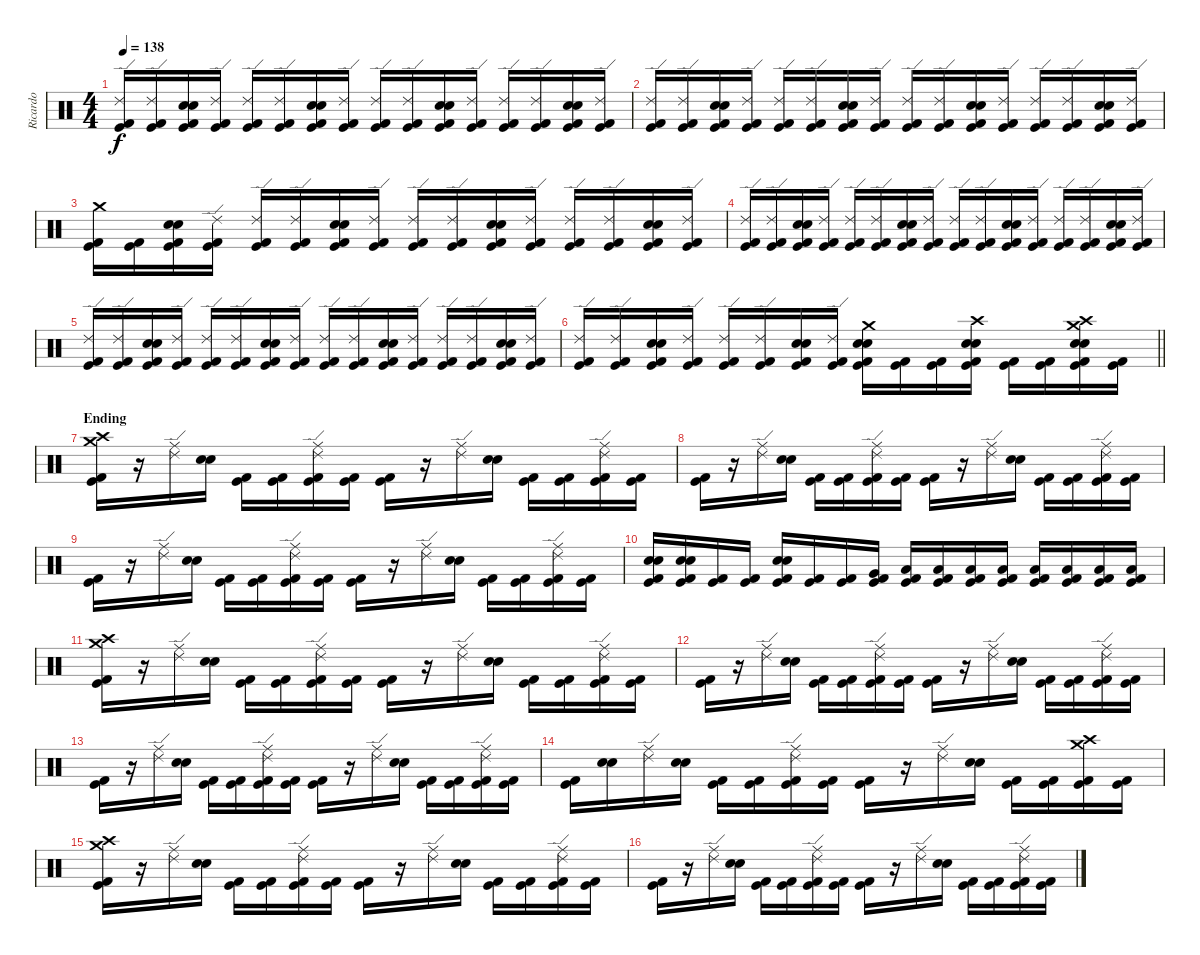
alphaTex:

\track ("Ricardo" "Ricardo") {instrument percussion}
\staff {score}
\articulation defaults
\ts (4 4)
\tempo 138
\clef neutral
\ks c
("Ride (edge) 2" "Kick (hit) 2" "Kick (hit)").16{dy f} ("Ride (edge) 2" "Kick (hit) 2" "Kick (hit)").16 ("Electric Snare (hit)" "Snare (hit) 2" "Kick (hit) 2" "Kick (hit)").16 ("Ride (edge) 2" "Kick (hit) 2" "Kick (hit)").16 ("Ride (edge) 2" "Kick (hit) 2" "Kick (hit)").16 ("Ride (edge) 2" "Kick (hit) 2" "Kick (hit)").16 ("Electric Snare (hit)" "Snare (hit) 2" "Kick (hit) 2" "Kick (hit)").16 ("Ride (edge) 2" "Kick (hit) 2" "Kick (hit)").16 ("Ride (edge) 2" "Kick (hit) 2" "Kick (hit)").16 ("Ride (edge) 2" "Kick (hit) 2" "Kick (hit)").16 ("Electric Snare (hit)" "Snare (hit) 2" "Kick (hit) 2" "Kick (hit)").16 ("Ride (edge) 2" "Kick (hit) 2" "Kick (hit)").16 ("Ride (edge) 2" "Kick (hit) 2" "Kick (hit)").16 ("Ride (edge) 2" "Kick (hit) 2" "Kick (hit)").16 ("Electric Snare (hit)" "Snare (hit) 2" "Kick (hit) 2" "Kick (hit)").16 ("Ride (edge) 2" "Kick (hit) 2" "Kick (hit)").16 |
("Ride (edge) 2" "Kick (hit) 2" "Kick (hit)").16 ("Ride (edge) 2" "Kick (hit) 2" "Kick (hit)").16 ("Electric Snare (hit)" "Snare (hit) 2" "Kick (hit) 2" "Kick (hit)").16 ("Ride (edge) 2" "Kick (hit) 2" "Kick (hit)").16 ("Ride (edge) 2" "Kick (hit) 2" "Kick (hit)").16 ("Ride (edge) 2" "Kick (hit) 2" "Kick (hit)").16 ("Electric Snare (hit)" "Snare (hit) 2" "Kick (hit) 2" "Kick (hit)").16 ("Ride (edge) 2" "Kick (hit) 2" "Kick (hit)").16 ("Ride (edge) 2" "Kick (hit) 2" "Kick (hit)").16 ("Ride (edge) 2" "Kick (hit) 2" "Kick (hit)").16 ("Electric Snare (hit)" "Snare (hit) 2" "Kick (hit) 2" "Kick (hit)").16 ("Ride (edge) 2" "Kick (hit) 2" "Kick (hit)").16 ("Ride (edge) 2" "Kick (hit) 2" "Kick (hit)").16 ("Ride (edge) 2" "Kick (hit) 2" "Kick (hit)").16 ("Electric Snare (hit)" "Snare (hit) 2" "Kick (hit) 2" "Kick (hit)").16 ("Ride (edge) 2" "Kick (hit) 2" "Kick (hit)").16 |
("Crash medium (hit)" "Kick (hit) 2" "Kick (hit)").16 ("Kick (hit) 2" "Kick (hit)").16 ("Electric Snare (hit)" "Snare (hit) 2" "Kick (hit) 2" "Kick (hit)").16 ("Ride (edge) 2" "Kick (hit) 2" "Kick (hit)").16 ("Ride (edge) 2" "Kick (hit) 2" "Kick (hit)").16 ("Ride (edge) 2" "Kick (hit) 2" "Kick (hit)").16 ("Electric Snare (hit)" "Snare (hit) 2" "Kick (hit) 2" "Kick (hit)").16 ("Ride (edge) 2" "Kick (hit) 2" "Kick (hit)").16 ("Ride (edge) 2" "Kick (hit) 2" "Kick (hit)").16 ("Ride (edge) 2" "Kick (hit) 2" "Kick (hit)").16 ("Electric Snare (hit)" "Snare (hit) 2" "Kick (hit) 2" "Kick (hit)").16 ("Ride (edge) 2" "Kick (hit) 2" "Kick (hit)").16 ("Ride (edge) 2" "Kick (hit) 2" "Kick (hit)").16 ("Ride (edge) 2" "Kick (hit) 2" "Kick (hit)").16 ("Electric Snare (hit)" "Snare (hit) 2" "Kick (hit) 2" "Kick (hit)").16 ("Ride (edge) 2" "Kick (hit) 2" "Kick (hit)").16 |
("Ride (edge) 2" "Kick (hit) 2" "Kick (hit)").16 ("Ride (edge) 2" "Kick (hit) 2" "Kick (hit)").16 ("Electric Snare (hit)" "Snare (hit) 2" "Kick (hit) 2" "Kick (hit)").16 ("Ride (edge) 2" "Kick (hit) 2" "Kick (hit)").16 ("Ride (edge) 2" "Kick (hit) 2" "Kick (hit)").16 ("Ride (edge) 2" "Kick (hit) 2" "Kick (hit)").16 ("Electric Snare (hit)" "Snare (hit) 2" "Kick (hit) 2" "Kick (hit)").16 ("Ride (edge) 2" "Kick (hit) 2" "Kick (hit)").16 ("Ride (edge) 2" "Kick (hit) 2" "Kick (hit)").16 ("Ride (edge) 2" "Kick (hit) 2" "Kick (hit)").16 ("Electric Snare (hit)" "Snare (hit) 2" "Kick (hit) 2" "Kick (hit)").16 ("Ride (edge) 2" "Kick (hit) 2" "Kick (hit)").16 ("Ride (edge) 2" "Kick (hit) 2" "Kick (hit)").16 ("Ride (edge) 2" "Kick (hit) 2" "Kick (hit)").16 ("Electric Snare (hit)" "Snare (hit) 2" "Kick (hit) 2" "Kick (hit)").16 ("Ride (edge) 2" "Kick (hit) 2" "Kick (hit)").16 |
("Ride (edge) 2" "Kick (hit) 2" "Kick (hit)").16 ("Ride (edge) 2" "Kick (hit) 2" "Kick (hit)").16 ("Electric Snare (hit)" "Snare (hit) 2" "Kick (hit) 2" "Kick (hit)").16 ("Ride (edge) 2" "Kick (hit) 2" "Kick (hit)").16 ("Ride (edge) 2" "Kick (hit) 2" "Kick (hit)").16 ("Ride (edge) 2" "Kick (hit) 2" "Kick (hit)").16 ("Electric Snare (hit)" "Snare (hit) 2" "Kick (hit) 2" "Kick (hit)").16 ("Ride (edge) 2" "Kick (hit) 2" "Kick (hit)").16 ("Ride (edge) 2" "Kick (hit) 2" "Kick (hit)").16 ("Ride (edge) 2" "Kick (hit) 2" "Kick (hit)").16 ("Electric Snare (hit)" "Snare (hit) 2" "Kick (hit) 2" "Kick (hit)").16 ("Ride (edge) 2" "Kick (hit) 2" "Kick (hit)").16 ("Ride (edge) 2" "Kick (hit) 2" "Kick (hit)").16 ("Ride (edge) 2" "Kick (hit) 2" "Kick (hit)").16 ("Electric Snare (hit)" "Snare (hit) 2" "Kick (hit) 2" "Kick (hit)").16 ("Ride (edge) 2" "Kick (hit) 2" "Kick (hit)").16 |
\barLineRight lightlight
("Ride (edge) 2" "Kick (hit) 2" "Kick (hit)").16 ("Ride (edge) 2" "Kick (hit) 2" "Kick (hit)").16 ("Electric Snare (hit)" "Snare (hit) 2" "Kick (hit) 2" "Kick (hit)").16 ("Ride (edge) 2" "Kick (hit) 2" "Kick (hit)").16 ("Ride (edge) 2" "Kick (hit) 2" "Kick (hit)").16 ("Ride (edge) 2" "Kick (hit) 2" "Kick (hit)").16 ("Electric Snare (hit)" "Snare (hit) 2" "Kick (hit) 2" "Kick (hit)").16 ("Ride (edge) 2" "Kick (hit) 2" "Kick (hit)").16 ("Crash medium (hit)" "Electric Snare (hit)" "Snare (hit) 2" "Kick (hit) 2" "Kick (hit)").16 ("Kick (hit) 2" "Kick (hit)").16 ("Kick (hit) 2" "Kick (hit)").16 ("Crash high (hit)" "Electric Snare (hit)" "Snare (hit) 2" "Kick (hit) 2" "Kick (hit)").16 ("Kick (hit) 2" "Kick (hit)").16 ("Kick (hit) 2" "Kick (hit)").16 ("Crash high (hit)" "Crash medium (hit)" "Electric Snare (hit)" "Snare (hit) 2" "Kick (hit) 2" "Kick (hit)").16 ("Kick (hit) 2" "Kick (hit)").16 |
\section ("" "Ending")
("Crash high (hit)" "Crash medium (hit)" "Kick (hit) 2" "Kick (hit)").16 r.16 ("Ride (middle)" "Ride (edge) 2").16 ("Electric Snare (hit)" "Snare (hit) 2").16 ("Kick (hit) 2" "Kick (hit)").16 ("Kick (hit) 2" "Kick (hit)").16 ("Ride (middle)" "Ride (edge) 2" "Kick (hit) 2" "Kick (hit)").16 ("Kick (hit) 2" "Kick (hit)").16 ("Kick (hit) 2" "Kick (hit)").16 r.16 ("Ride (middle)" "Ride (edge) 2").16 ("Electric Snare (hit)" "Snare (hit) 2").16 ("Kick (hit) 2" "Kick (hit)").16 ("Kick (hit) 2" "Kick (hit)").16 ("Ride (middle)" "Ride (edge) 2" "Kick (hit) 2" "Kick (hit)").16 ("Kick (hit) 2" "Kick (hit)").16 |
("Kick (hit) 2" "Kick (hit)").16 r.16 ("Ride (middle)" "Ride (edge) 2").16 ("Electric Snare (hit)" "Snare (hit) 2").16 ("Kick (hit) 2" "Kick (hit)").16 ("Kick (hit) 2" "Kick (hit)").16 ("Ride (middle)" "Ride (edge) 2" "Kick (hit) 2" "Kick (hit)").16 ("Kick (hit) 2" "Kick (hit)").16 ("Kick (hit) 2" "Kick (hit)").16 r.16 ("Ride (middle)" "Ride (edge) 2").16 ("Electric Snare (hit)" "Snare (hit) 2").16 ("Kick (hit) 2" "Kick (hit)").16 ("Kick (hit) 2" "Kick (hit)").16 ("Ride (middle)" "Ride (edge) 2" "Kick (hit) 2" "Kick (hit)").16 ("Kick (hit) 2" "Kick (hit)").16 |
("Kick (hit) 2" "Kick (hit)").16 r.16 ("Ride (middle)" "Ride (edge) 2").16 ("Electric Snare (hit)" "Snare (hit) 2").16 ("Kick (hit) 2" "Kick (hit)").16 ("Kick (hit) 2" "Kick (hit)").16 ("Ride (middle)" "Ride (edge) 2" "Kick (hit) 2" "Kick (hit)").16 ("Kick (hit) 2" "Kick (hit)").16 ("Kick (hit) 2" "Kick (hit)").16 r.16 ("Ride (middle)" "Ride (edge) 2").16 ("Electric Snare (hit)" "Snare (hit) 2").16 ("Kick (hit) 2" "Kick (hit)").16 ("Kick (hit) 2" "Kick (hit)").16 ("Ride (middle)" "Ride (edge) 2" "Kick (hit) 2" "Kick (hit)").16 ("Kick (hit) 2" "Kick (hit)").16 |
("Snare (hit) 2" "Electric Snare (hit)" "Kick (hit) 2" "Kick (hit)").16 ("Snare (hit) 2" "Electric Snare (hit)" "Kick (hit) 2" "Kick (hit)").16 ("Kick (hit) 2" "Kick (hit)").16 ("Kick (hit) 2" "Kick (hit)").16 ("Electric Snare (hit)" "Snare (hit) 2" "Kick (hit) 2" "Kick (hit)").16 ("Kick (hit) 2" "Kick (hit)").16 ("Kick (hit) 2" "Kick (hit)").16 ("Very Low Tom (hit)" "Kick (hit) 2" "Kick (hit)").16 ("Low Floor Tom (hit)" "Kick (hit) 2" "Kick (hit)").16 ("Low Floor Tom (hit)" "Kick (hit) 2" "Kick (hit)").16 ("Low Floor Tom (hit)" "Kick (hit) 2" "Kick (hit)").16 ("Low Floor Tom (hit)" "Kick (hit)" "Kick (hit) 2").16 ("Low Floor Tom (hit)" "Kick (hit)" "Kick (hit) 2").16 ("Low Floor Tom (hit)" "Kick (hit) 2" "Kick (hit)").16 ("Low Floor Tom (hit)" "Kick (hit) 2" "Kick (hit)").16 ("Low Floor Tom (hit)" "Kick (hit) 2" "Kick (hit)").16 |
("Crash high (hit)" "Crash medium (hit)" "Kick (hit) 2" "Kick (hit)").16 r.16 ("Ride (middle)" "Ride (edge) 2").16 ("Electric Snare (hit)" "Snare (hit) 2").16 ("Kick (hit) 2" "Kick (hit)").16 ("Kick (hit) 2" "Kick (hit)").16 ("Ride (middle)" "Ride (edge) 2" "Kick (hit) 2" "Kick (hit)").16 ("Kick (hit) 2" "Kick (hit)").16 ("Kick (hit) 2" "Kick (hit)").16 r.16 ("Ride (middle)" "Ride (edge) 2").16 ("Electric Snare (hit)" "Snare (hit) 2").16 ("Kick (hit) 2" "Kick (hit)").16 ("Kick (hit) 2" "Kick (hit)").16 ("Ride (middle)" "Ride (edge) 2" "Kick (hit) 2" "Kick (hit)").16 ("Kick (hit) 2" "Kick (hit)").16 |
("Kick (hit) 2" "Kick (hit)").16 r.16 ("Ride (middle)" "Ride (edge) 2").16 ("Electric Snare (hit)" "Snare (hit) 2").16 ("Kick (hit) 2" "Kick (hit)").16 ("Kick (hit) 2" "Kick (hit)").16 ("Ride (middle)" "Ride (edge) 2" "Kick (hit) 2" "Kick (hit)").16 ("Kick (hit) 2" "Kick (hit)").16 ("Kick (hit) 2" "Kick (hit)").16 r.16 ("Ride (middle)" "Ride (edge) 2").16 ("Electric Snare (hit)" "Snare (hit) 2").16 ("Kick (hit) 2" "Kick (hit)").16 ("Kick (hit) 2" "Kick (hit)").16 ("Ride (middle)" "Ride (edge) 2" "Kick (hit) 2" "Kick (hit)").16 ("Kick (hit) 2" "Kick (hit)").16 |
("Kick (hit) 2" "Kick (hit)").16 r.16 ("Ride (middle)" "Ride (edge) 2").16 ("Electric Snare (hit)" "Snare (hit) 2").16 ("Kick (hit) 2" "Kick (hit)").16 ("Kick (hit) 2" "Kick (hit)").16 ("Ride (middle)" "Ride (edge) 2" "Kick (hit) 2" "Kick (hit)").16 ("Kick (hit) 2" "Kick (hit)").16 ("Kick (hit) 2" "Kick (hit)").16 r.16 ("Ride (middle)" "Ride (edge) 2").16 ("Electric Snare (hit)" "Snare (hit) 2").16 ("Kick (hit) 2" "Kick (hit)").16 ("Kick (hit) 2" "Kick (hit)").16 ("Ride (middle)" "Ride (edge) 2" "Kick (hit) 2" "Kick (hit)").16 ("Kick (hit) 2" "Kick (hit)").16 |
("Kick (hit) 2" "Kick (hit)").16 ("Electric Snare (hit)" "Snare (hit) 2").16 ("Ride (middle)" "Ride (edge) 2").16 ("Electric Snare (hit)" "Snare (hit) 2").16 ("Kick (hit) 2" "Kick (hit)").16 ("Kick (hit) 2" "Kick (hit)").16 ("Ride (middle)" "Ride (edge) 2" "Kick (hit) 2" "Kick (hit)").16 ("Kick (hit) 2" "Kick (hit)").16 ("Kick (hit) 2" "Kick (hit)").16 r.16 ("Ride (middle)" "Ride (edge) 2").16 ("Electric Snare (hit)" "Snare (hit) 2").16 ("Kick (hit) 2" "Kick (hit)").16 ("Kick (hit) 2" "Kick (hit)").16 ("Crash high (hit)" "Crash medium (hit)" "Kick (hit) 2" "Kick (hit)").16 ("Kick (hit) 2" "Kick (hit)").16 |
("Crash medium (hit)" "Crash high (hit)" "Kick (hit) 2" "Kick (hit)").16 r.16 ("Ride (middle)" "Ride (edge) 2").16 ("Electric Snare (hit)" "Snare (hit) 2").16 ("Kick (hit) 2" "Kick (hit)").16 ("Kick (hit) 2" "Kick (hit)").16 ("Ride (middle)" "Ride (edge) 2" "Kick (hit) 2" "Kick (hit)").16 ("Kick (hit) 2" "Kick (hit)").16 ("Kick (hit) 2" "Kick (hit)").16 r.16 ("Ride (middle)" "Ride (edge) 2").16 ("Electric Snare (hit)" "Snare (hit) 2").16 ("Kick (hit) 2" "Kick (hit)").16 ("Kick (hit) 2" "Kick (hit)").16 ("Ride (middle)" "Ride (edge) 2" "Kick (hit) 2" "Kick (hit)").16 ("Kick (hit) 2" "Kick (hit)").16 |
("Kick (hit) 2" "Kick (hit)").16 r.16 ("Ride (middle)" "Ride (edge) 2").16 ("Electric Snare (hit)" "Snare (hit) 2").16 ("Kick (hit) 2" "Kick (hit)").16 ("Kick (hit) 2" "Kick (hit)").16 ("Ride (middle)" "Ride (edge) 2" "Kick (hit) 2" "Kick (hit)").16 ("Kick (hit) 2" "Kick (hit)").16 ("Kick (hit) 2" "Kick (hit)").16 r.16 ("Ride (middle)" "Ride (edge) 2").16 ("Electric Snare (hit)" "Snare (hit) 2").16 ("Kick (hit) 2" "Kick (hit)").16 ("Kick (hit) 2" "Kick (hit)").16 ("Ride (middle)" "Ride (edge) 2" "Kick (hit) 2" "Kick (hit)").16 ("Kick (hit) 2" "Kick (hit)").16
